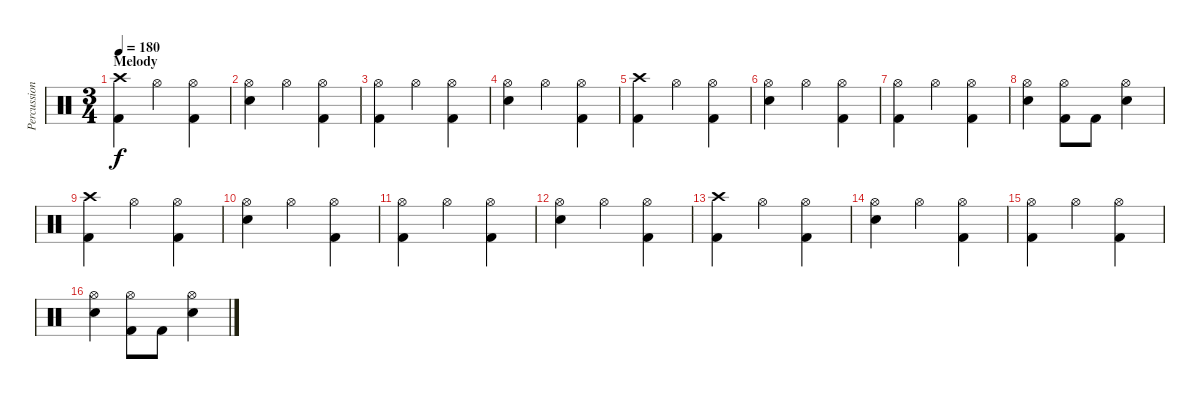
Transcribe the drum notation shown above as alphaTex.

\track ("Percussions" "Percussion") {instrument percussion}
\staff {score}
\articulation defaults
\ts (3 4)
\section ("" "Melody")
\tempo 180
\clef neutral
\ks c
("Crash high (hit)" "Kick (hit) 2").4{dy f} "Hi-Hat (open)".4 ("Hi-Hat (open)" "Kick (hit) 2").4 |
("Hi-Hat (open)" "Snare (hit) 2").4 "Hi-Hat (open)".4 ("Hi-Hat (open)" "Kick (hit) 2").4 |
("Hi-Hat (open)" "Kick (hit) 2").4 "Hi-Hat (open)".4 ("Hi-Hat (open)" "Kick (hit) 2").4 |
("Hi-Hat (open)" "Snare (hit) 2").4 "Hi-Hat (open)".4 ("Hi-Hat (open)" "Kick (hit) 2").4 |
("Crash high (hit)" "Kick (hit) 2").4 "Hi-Hat (open)".4 ("Hi-Hat (open)" "Kick (hit) 2").4 |
("Hi-Hat (open)" "Snare (hit) 2").4 "Hi-Hat (open)".4 ("Hi-Hat (open)" "Kick (hit) 2").4 |
("Hi-Hat (open)" "Kick (hit) 2").4 "Hi-Hat (open)".4 ("Hi-Hat (open)" "Kick (hit) 2").4 |
("Hi-Hat (open)" "Snare (hit) 2").4 ("Hi-Hat (open)" "Kick (hit) 2").8 "Kick (hit) 2".8 ("Hi-Hat (open)" "Snare (hit) 2").4 |
("Crash high (hit)" "Kick (hit) 2").4 "Hi-Hat (open)".4 ("Hi-Hat (open)" "Kick (hit) 2").4 |
("Hi-Hat (open)" "Snare (hit) 2").4 "Hi-Hat (open)".4 ("Hi-Hat (open)" "Kick (hit) 2").4 |
("Hi-Hat (open)" "Kick (hit) 2").4 "Hi-Hat (open)".4 ("Hi-Hat (open)" "Kick (hit) 2").4 |
("Hi-Hat (open)" "Snare (hit) 2").4 "Hi-Hat (open)".4 ("Hi-Hat (open)" "Kick (hit) 2").4 |
("Crash high (hit)" "Kick (hit) 2").4 "Hi-Hat (open)".4 ("Hi-Hat (open)" "Kick (hit) 2").4 |
("Hi-Hat (open)" "Snare (hit) 2").4 "Hi-Hat (open)".4 ("Hi-Hat (open)" "Kick (hit) 2").4 |
("Hi-Hat (open)" "Kick (hit) 2").4 "Hi-Hat (open)".4 ("Hi-Hat (open)" "Kick (hit) 2").4 |
("Hi-Hat (open)" "Snare (hit) 2").4 ("Hi-Hat (open)" "Kick (hit) 2").8 "Kick (hit) 2".8 ("Hi-Hat (open)" "Snare (hit) 2").4
